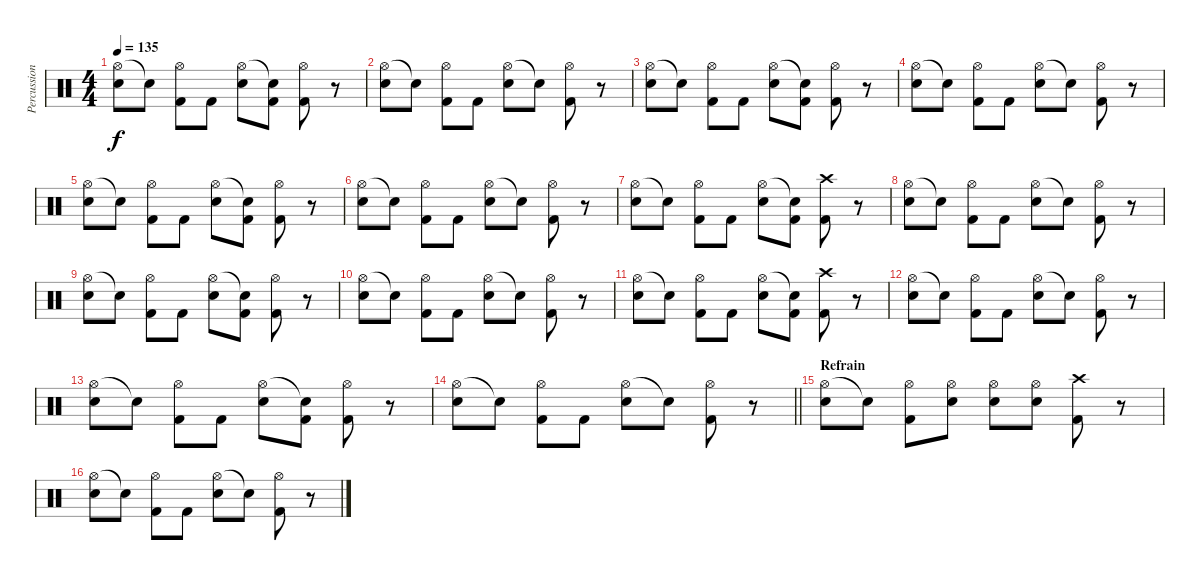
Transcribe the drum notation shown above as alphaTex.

\track ("Percussion" "Percussion") {instrument percussion}
\staff {score}
\articulation defaults
\ts (4 4)
\tempo 135
\clef neutral
\ks c
("Hi-Hat (open)" "Electric Snare (hit)").8{dy f} "Electric Snare (hit)"{t}.8 ("Hi-Hat (open)" "Kick (hit) 2").8 "Kick (hit) 2".8 ("Hi-Hat (open)" "Electric Snare (hit)").8 ("Electric Snare (hit)"{t} "Kick (hit) 2").8 ("Hi-Hat (open)" "Kick (hit) 2").8 r.8 |
("Hi-Hat (open)" "Electric Snare (hit)").8 "Electric Snare (hit)"{t}.8 ("Hi-Hat (open)" "Kick (hit) 2").8 "Kick (hit) 2".8 ("Hi-Hat (open)" "Electric Snare (hit)").8 "Electric Snare (hit)"{t}.8 ("Hi-Hat (open)" "Kick (hit) 2").8 r.8 |
("Hi-Hat (open)" "Electric Snare (hit)").8 "Electric Snare (hit)"{t}.8 ("Hi-Hat (open)" "Kick (hit) 2").8 "Kick (hit) 2".8 ("Hi-Hat (open)" "Electric Snare (hit)").8 ("Electric Snare (hit)"{t} "Kick (hit) 2").8 ("Hi-Hat (open)" "Kick (hit) 2").8 r.8 |
("Hi-Hat (open)" "Electric Snare (hit)").8 "Electric Snare (hit)"{t}.8 ("Hi-Hat (open)" "Kick (hit) 2").8 "Kick (hit) 2".8 ("Hi-Hat (open)" "Electric Snare (hit)").8 "Electric Snare (hit)"{t}.8 ("Hi-Hat (open)" "Kick (hit) 2").8 r.8 |
("Hi-Hat (open)" "Electric Snare (hit)").8 "Electric Snare (hit)"{t}.8 ("Hi-Hat (open)" "Kick (hit) 2").8 "Kick (hit) 2".8 ("Hi-Hat (open)" "Electric Snare (hit)").8 ("Electric Snare (hit)"{t} "Kick (hit) 2").8 ("Hi-Hat (open)" "Kick (hit) 2").8 r.8 |
("Hi-Hat (open)" "Electric Snare (hit)").8 "Electric Snare (hit)"{t}.8 ("Hi-Hat (open)" "Kick (hit) 2").8 "Kick (hit) 2".8 ("Hi-Hat (open)" "Electric Snare (hit)").8 "Electric Snare (hit)"{t}.8 ("Hi-Hat (open)" "Kick (hit) 2").8 r.8 |
("Hi-Hat (open)" "Electric Snare (hit)").8 "Electric Snare (hit)"{t}.8 ("Hi-Hat (open)" "Kick (hit) 2").8 "Kick (hit) 2".8 ("Hi-Hat (open)" "Electric Snare (hit)").8 ("Electric Snare (hit)"{t} "Kick (hit) 2").8 ("Crash high (hit)" "Kick (hit) 2").8 r.8 |
("Hi-Hat (open)" "Electric Snare (hit)").8 "Electric Snare (hit)"{t}.8 ("Hi-Hat (open)" "Kick (hit) 2").8 "Kick (hit) 2".8 ("Hi-Hat (open)" "Electric Snare (hit)").8 "Electric Snare (hit)"{t}.8 ("Hi-Hat (open)" "Kick (hit) 2").8 r.8 |
("Hi-Hat (open)" "Electric Snare (hit)").8 "Electric Snare (hit)"{t}.8 ("Hi-Hat (open)" "Kick (hit) 2").8 "Kick (hit) 2".8 ("Hi-Hat (open)" "Electric Snare (hit)").8 ("Electric Snare (hit)"{t} "Kick (hit) 2").8 ("Hi-Hat (open)" "Kick (hit) 2").8 r.8 |
("Hi-Hat (open)" "Electric Snare (hit)").8 "Electric Snare (hit)"{t}.8 ("Hi-Hat (open)" "Kick (hit) 2").8 "Kick (hit) 2".8 ("Hi-Hat (open)" "Electric Snare (hit)").8 "Electric Snare (hit)"{t}.8 ("Hi-Hat (open)" "Kick (hit) 2").8 r.8 |
("Hi-Hat (open)" "Electric Snare (hit)").8 "Electric Snare (hit)"{t}.8 ("Hi-Hat (open)" "Kick (hit) 2").8 "Kick (hit) 2".8 ("Hi-Hat (open)" "Electric Snare (hit)").8 ("Electric Snare (hit)"{t} "Kick (hit) 2").8 ("Crash high (hit)" "Kick (hit) 2").8 r.8 |
("Hi-Hat (open)" "Electric Snare (hit)").8 "Electric Snare (hit)"{t}.8 ("Hi-Hat (open)" "Kick (hit) 2").8 "Kick (hit) 2".8 ("Hi-Hat (open)" "Electric Snare (hit)").8 "Electric Snare (hit)"{t}.8 ("Hi-Hat (open)" "Kick (hit) 2").8 r.8 |
("Hi-Hat (open)" "Electric Snare (hit)").8 "Electric Snare (hit)"{t}.8 ("Hi-Hat (open)" "Kick (hit) 2").8 "Kick (hit) 2".8 ("Hi-Hat (open)" "Electric Snare (hit)").8 ("Electric Snare (hit)"{t} "Kick (hit) 2").8 ("Hi-Hat (open)" "Kick (hit) 2").8 r.8 |
\barLineRight lightlight
("Hi-Hat (open)" "Electric Snare (hit)").8 "Electric Snare (hit)"{t}.8 ("Hi-Hat (open)" "Kick (hit) 2").8 "Kick (hit) 2".8 ("Hi-Hat (open)" "Electric Snare (hit)").8 "Electric Snare (hit)"{t}.8 ("Hi-Hat (open)" "Kick (hit) 2").8 r.8 |
\section ("" "Refrain")
("Hi-Hat (open)" "Electric Snare (hit)").8 "Electric Snare (hit)"{t}.8 ("Hi-Hat (open)" "Kick (hit) 2").8 ("Hi-Hat (open)" "Electric Snare (hit)").8 ("Hi-Hat (open)" "Electric Snare (hit)").8 ("Hi-Hat (open)" "Electric Snare (hit)").8 ("Crash high (hit)" "Kick (hit) 2").8 r.8 |
("Hi-Hat (open)" "Electric Snare (hit)").8 "Electric Snare (hit)"{t}.8 ("Hi-Hat (open)" "Kick (hit) 2").8 "Kick (hit) 2".8 ("Hi-Hat (open)" "Electric Snare (hit)").8 "Electric Snare (hit)"{t}.8 ("Hi-Hat (open)" "Kick (hit) 2").8 r.8
